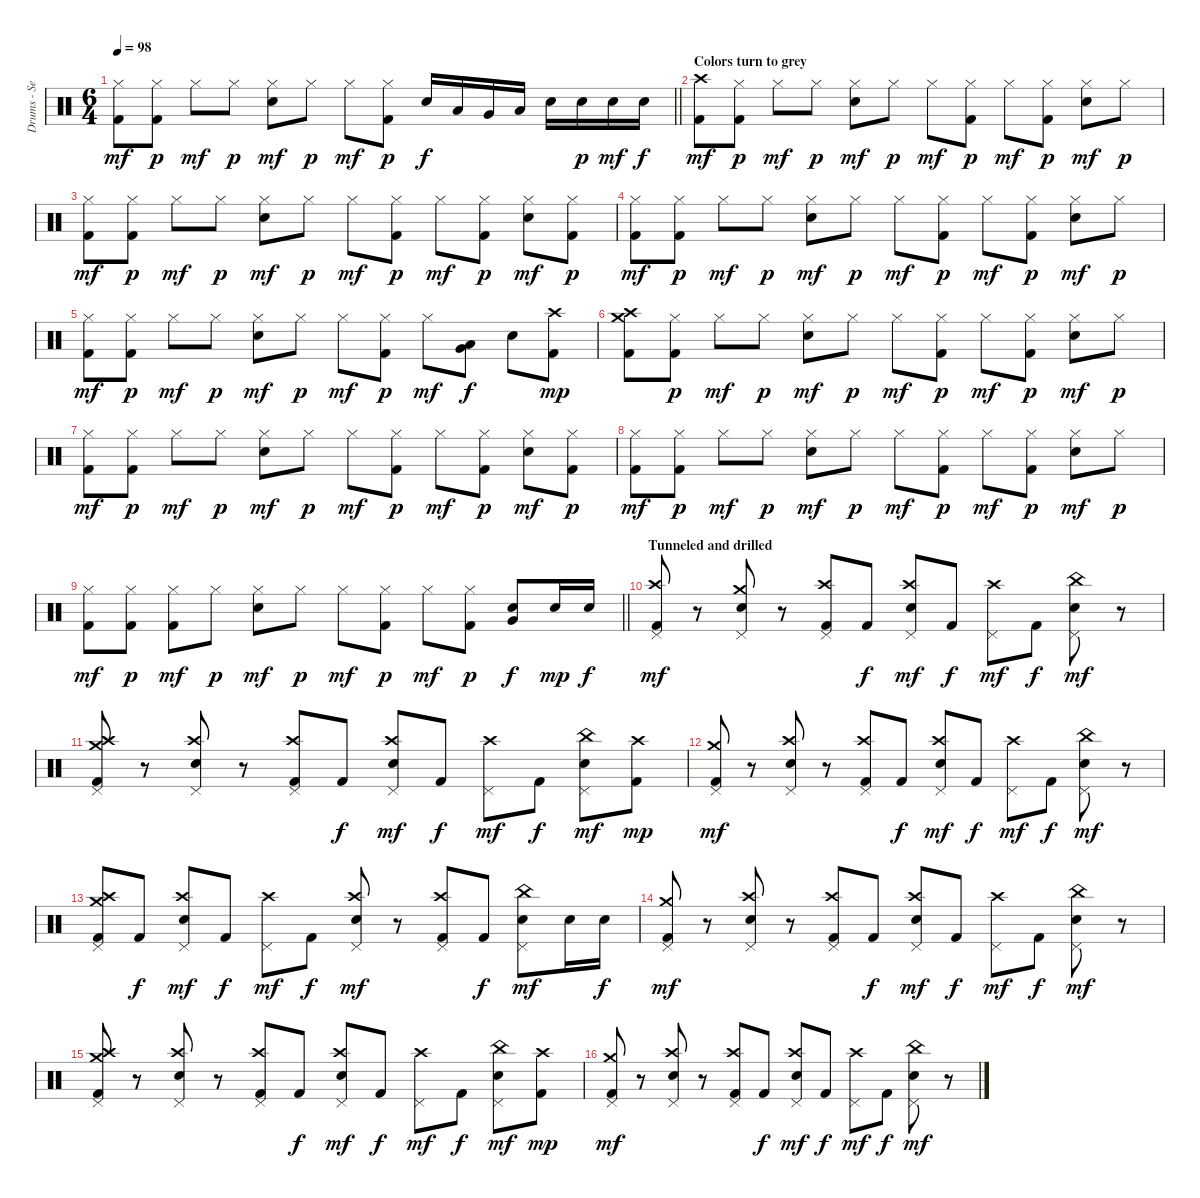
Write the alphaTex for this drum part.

\track ("Drums - Sean Kinney" "Drums - Se") {instrument percussion}
\staff {score}
\articulation defaults
\ts (6 4)
\tempo 98
\clef neutral
\barLineRight lightlight
\ks c
("Hi-Hat (closed)" "Kick (hit) 2").8{dy mf} ("Hi-Hat (closed)" "Kick (hit) 2").8{dy p} "Hi-Hat (closed)".8{dy mf} "Hi-Hat (closed)".8{dy p} ("Hi-Hat (closed)" "Snare (hit) 2").8{dy mf} "Hi-Hat (closed)".8{dy p} "Hi-Hat (closed)".8{dy mf} ("Hi-Hat (closed)" "Kick (hit) 2").8{dy p} "Snare (hit) 2".16{dy f} "Low Tom (hit)".16 "Very Low Tom (hit)".16 "Low Floor Tom (hit)".16 "Snare (hit) 2".16 "Snare (hit) 2".16{dy p} "Snare (hit) 2".16{dy mf} "Snare (hit) 2".16{dy f} |
\section ("" "Colors turn to grey")
("Crash high (hit)" "Kick (hit) 2").8{dy mf} ("Hi-Hat (closed)" "Kick (hit) 2").8{dy p} "Hi-Hat (closed)".8{dy mf} "Hi-Hat (closed)".8{dy p} ("Hi-Hat (closed)" "Snare (hit) 2").8{dy mf} "Hi-Hat (closed)".8{dy p} "Hi-Hat (closed)".8{dy mf} ("Hi-Hat (closed)" "Kick (hit) 2").8{dy p} "Hi-Hat (closed)".8{dy mf} ("Hi-Hat (closed)" "Kick (hit) 2").8{dy p} ("Hi-Hat (closed)" "Snare (hit) 2").8{dy mf} "Hi-Hat (closed)".8{dy p} |
("Hi-Hat (closed)" "Kick (hit) 2").8{dy mf} ("Hi-Hat (closed)" "Kick (hit) 2").8{dy p} "Hi-Hat (closed)".8{dy mf} "Hi-Hat (closed)".8{dy p} ("Hi-Hat (closed)" "Snare (hit) 2").8{dy mf} "Hi-Hat (closed)".8{dy p} "Hi-Hat (closed)".8{dy mf} ("Hi-Hat (closed)" "Kick (hit) 2").8{dy p} "Hi-Hat (closed)".8{dy mf} ("Hi-Hat (closed)" "Kick (hit) 2").8{dy p} ("Hi-Hat (closed)" "Snare (hit) 2").8{dy mf} ("Hi-Hat (closed)" "Kick (hit) 2").8{dy p} |
("Hi-Hat (closed)" "Kick (hit) 2").8{dy mf} ("Hi-Hat (closed)" "Kick (hit) 2").8{dy p} "Hi-Hat (closed)".8{dy mf} "Hi-Hat (closed)".8{dy p} ("Hi-Hat (closed)" "Snare (hit) 2").8{dy mf} "Hi-Hat (closed)".8{dy p} "Hi-Hat (closed)".8{dy mf} ("Hi-Hat (closed)" "Kick (hit) 2").8{dy p} "Hi-Hat (closed)".8{dy mf} ("Hi-Hat (closed)" "Kick (hit) 2").8{dy p} ("Hi-Hat (closed)" "Snare (hit) 2").8{dy mf} "Hi-Hat (closed)".8{dy p} |
("Hi-Hat (closed)" "Kick (hit) 2").8{dy mf} ("Hi-Hat (closed)" "Kick (hit) 2").8{dy p} "Hi-Hat (closed)".8{dy mf} "Hi-Hat (closed)".8{dy p} ("Hi-Hat (closed)" "Snare (hit) 2").8{dy mf} "Hi-Hat (closed)".8{dy p} "Hi-Hat (closed)".8{dy mf} ("Hi-Hat (closed)" "Kick (hit) 2").8{dy p} "Hi-Hat (closed)".8{dy mf} ("Low Tom (hit)" "Very Low Tom (hit)").8{dy f} "Snare (hit) 2".8 ("Crash high (hit)" "Kick (hit) 2").8{dy mp} |
("Crash high (hit)" "Crash medium (hit)" "Kick (hit) 2").8 ("Hi-Hat (closed)" "Kick (hit) 2").8{dy p} "Hi-Hat (closed)".8{dy mf} "Hi-Hat (closed)".8{dy p} ("Hi-Hat (closed)" "Snare (hit) 2").8{dy mf} "Hi-Hat (closed)".8{dy p} "Hi-Hat (closed)".8{dy mf} ("Hi-Hat (closed)" "Kick (hit) 2").8{dy p} "Hi-Hat (closed)".8{dy mf} ("Hi-Hat (closed)" "Kick (hit) 2").8{dy p} ("Hi-Hat (closed)" "Snare (hit) 2").8{dy mf} "Hi-Hat (closed)".8{dy p} |
("Hi-Hat (closed)" "Kick (hit) 2").8{dy mf} ("Hi-Hat (closed)" "Kick (hit) 2").8{dy p} "Hi-Hat (closed)".8{dy mf} "Hi-Hat (closed)".8{dy p} ("Hi-Hat (closed)" "Snare (hit) 2").8{dy mf} "Hi-Hat (closed)".8{dy p} "Hi-Hat (closed)".8{dy mf} ("Hi-Hat (closed)" "Kick (hit) 2").8{dy p} "Hi-Hat (closed)".8{dy mf} ("Hi-Hat (closed)" "Kick (hit) 2").8{dy p} ("Hi-Hat (closed)" "Snare (hit) 2").8{dy mf} ("Hi-Hat (closed)" "Kick (hit) 2").8{dy p} |
("Hi-Hat (closed)" "Kick (hit) 2").8{dy mf} ("Hi-Hat (closed)" "Kick (hit) 2").8{dy p} "Hi-Hat (closed)".8{dy mf} "Hi-Hat (closed)".8{dy p} ("Hi-Hat (closed)" "Snare (hit) 2").8{dy mf} "Hi-Hat (closed)".8{dy p} "Hi-Hat (closed)".8{dy mf} ("Hi-Hat (closed)" "Kick (hit) 2").8{dy p} "Hi-Hat (closed)".8{dy mf} ("Hi-Hat (closed)" "Kick (hit) 2").8{dy p} ("Hi-Hat (closed)" "Snare (hit) 2").8{dy mf} "Hi-Hat (closed)".8{dy p} |
\barLineRight lightlight
("Hi-Hat (closed)" "Kick (hit) 2").8{dy mf} ("Hi-Hat (closed)" "Kick (hit) 2").8{dy p} ("Hi-Hat (closed)" "Kick (hit) 2").8{dy mf} "Hi-Hat (closed)".8{dy p} ("Hi-Hat (closed)" "Snare (hit) 2").8{dy mf} "Hi-Hat (closed)".8{dy p} "Hi-Hat (closed)".8{dy mf} ("Hi-Hat (closed)" "Kick (hit) 2").8{dy p} "Hi-Hat (closed)".8{dy mf} ("Hi-Hat (closed)" "Kick (hit) 2").8{dy p} ("Very Low Tom (hit)" "Snare (hit) 2").8{dy f} "Snare (hit) 2".16{dy mp} "Snare (hit) 2".16{dy f} |
\section ("" "Tunneled and drilled")
("Crash high (hit)" "Pedal Hi-Hat (hit)" "Kick (hit) 2").8{dy mf} r.8 ("Crash medium (hit)" "Pedal Hi-Hat (hit)" "Snare (hit) 2").8 r.8 ("Crash high (hit)" "Pedal Hi-Hat (hit)" "Kick (hit) 2").8 "Kick (hit) 2".8{dy f} ("Crash high (hit)" "Pedal Hi-Hat (hit)" "Snare (hit) 2").8{dy mf} "Kick (hit) 2".8{dy f} ("Crash high (hit)" "Pedal Hi-Hat (hit)").8{dy mf} "Kick (hit) 2".8{dy f} ("China (hit)" "Pedal Hi-Hat (hit)" "Snare (hit) 2").8{dy mf} r.8 |
("Crash medium (hit)" "Crash high (hit)" "Pedal Hi-Hat (hit)" "Kick (hit) 2").8 r.8 ("Crash high (hit)" "Pedal Hi-Hat (hit)" "Snare (hit) 2").8 r.8 ("Crash high (hit)" "Pedal Hi-Hat (hit)" "Kick (hit) 2").8 "Kick (hit) 2".8{dy f} ("Crash high (hit)" "Pedal Hi-Hat (hit)" "Snare (hit) 2").8{dy mf} "Kick (hit) 2".8{dy f} ("Crash high (hit)" "Pedal Hi-Hat (hit)").8{dy mf} "Kick (hit) 2".8{dy f} ("China (hit)" "Pedal Hi-Hat (hit)" "Snare (hit) 2").8{dy mf} ("Crash high (hit)" "Kick (hit) 2").8{dy mp} |
("Crash medium (hit)" "Pedal Hi-Hat (hit)" "Kick (hit) 2").8{dy mf} r.8 ("Crash high (hit)" "Pedal Hi-Hat (hit)" "Snare (hit) 2").8 r.8 ("Crash high (hit)" "Pedal Hi-Hat (hit)" "Kick (hit) 2").8 "Kick (hit) 2".8{dy f} ("Crash high (hit)" "Pedal Hi-Hat (hit)" "Snare (hit) 2").8{dy mf} "Kick (hit) 2".8{dy f} ("Crash high (hit)" "Pedal Hi-Hat (hit)").8{dy mf} "Kick (hit) 2".8{dy f} ("China (hit)" "Pedal Hi-Hat (hit)" "Snare (hit) 2").8{dy mf} r.8 |
("Crash medium (hit)" "Crash high (hit)" "Pedal Hi-Hat (hit)" "Kick (hit) 2").8 "Kick (hit) 2".8{dy f} ("Crash high (hit)" "Pedal Hi-Hat (hit)" "Snare (hit) 2").8{dy mf} "Kick (hit) 2".8{dy f} ("Crash high (hit)" "Pedal Hi-Hat (hit)").8{dy mf} "Kick (hit) 2".8{dy f} ("Crash high (hit)" "Pedal Hi-Hat (hit)" "Snare (hit) 2").8{dy mf} r.8 ("Crash high (hit)" "Pedal Hi-Hat (hit)" "Kick (hit) 2").8 "Kick (hit) 2".8{dy f} ("China (hit)" "Pedal Hi-Hat (hit)" "Snare (hit) 2").8{dy mf} "Snare (hit) 2".16 "Snare (hit) 2".16{dy f} |
("Crash medium (hit)" "Pedal Hi-Hat (hit)" "Kick (hit) 2").8{dy mf} r.8 ("Crash high (hit)" "Pedal Hi-Hat (hit)" "Snare (hit) 2").8 r.8 ("Crash high (hit)" "Pedal Hi-Hat (hit)" "Kick (hit) 2").8 "Kick (hit) 2".8{dy f} ("Crash high (hit)" "Pedal Hi-Hat (hit)" "Snare (hit) 2").8{dy mf} "Kick (hit) 2".8{dy f} ("Crash high (hit)" "Pedal Hi-Hat (hit)").8{dy mf} "Kick (hit) 2".8{dy f} ("China (hit)" "Pedal Hi-Hat (hit)" "Snare (hit) 2").8{dy mf} r.8 |
("Crash medium (hit)" "Crash high (hit)" "Pedal Hi-Hat (hit)" "Kick (hit) 2").8 r.8 ("Crash high (hit)" "Pedal Hi-Hat (hit)" "Snare (hit) 2").8 r.8 ("Crash high (hit)" "Pedal Hi-Hat (hit)" "Kick (hit) 2").8 "Kick (hit) 2".8{dy f} ("Crash high (hit)" "Pedal Hi-Hat (hit)" "Snare (hit) 2").8{dy mf} "Kick (hit) 2".8{dy f} ("Crash high (hit)" "Pedal Hi-Hat (hit)").8{dy mf} "Kick (hit) 2".8{dy f} ("China (hit)" "Pedal Hi-Hat (hit)" "Snare (hit) 2").8{dy mf} ("Crash high (hit)" "Kick (hit) 2").8{dy mp} |
("Crash medium (hit)" "Pedal Hi-Hat (hit)" "Kick (hit) 2").8{dy mf} r.8 ("Crash high (hit)" "Pedal Hi-Hat (hit)" "Snare (hit) 2").8 r.8 ("Crash high (hit)" "Pedal Hi-Hat (hit)" "Kick (hit) 2").8 "Kick (hit) 2".8{dy f} ("Crash high (hit)" "Pedal Hi-Hat (hit)" "Snare (hit) 2").8{dy mf} "Kick (hit) 2".8{dy f} ("Crash high (hit)" "Pedal Hi-Hat (hit)").8{dy mf} "Kick (hit) 2".8{dy f} ("China (hit)" "Pedal Hi-Hat (hit)" "Snare (hit) 2").8{dy mf} r.8
